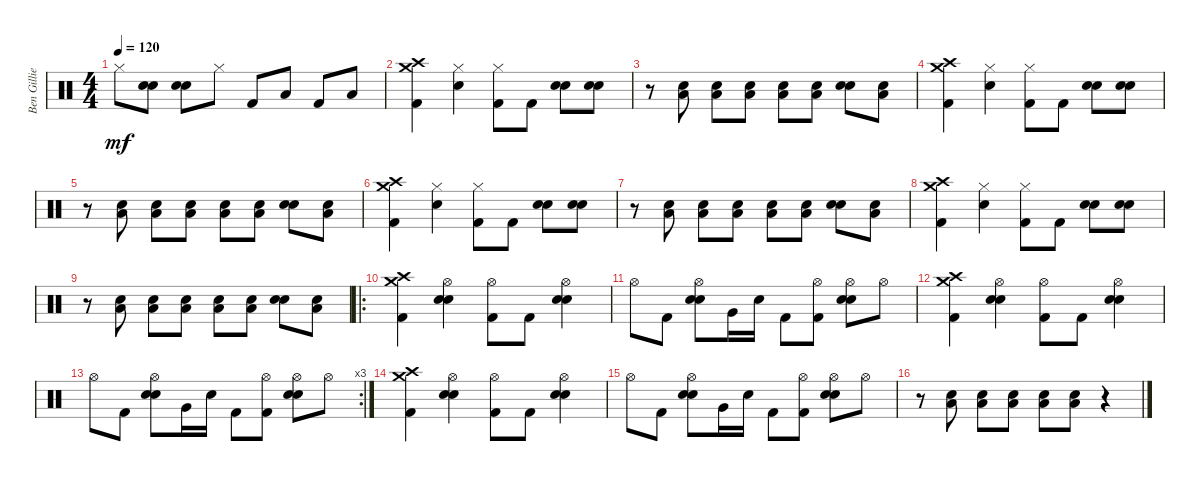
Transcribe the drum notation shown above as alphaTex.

\track ("Ben Gillies" "Ben Gillie") {instrument percussion}
\staff {score}
\articulation defaults
\ts (4 4)
\tempo 120
\clef neutral
\ks c "Hi-Hat (closed)".8{dy mf}
("Electric Snare (hit)" "Electric Snare (hit)").8 ("Electric Snare (hit)" "Electric Snare (hit)").8 "Hi-Hat (closed)".8 "Kick (hit) 2".8 "Low Tom (hit)".8 "Kick (hit) 2".8 "Low Floor Tom (hit)".8 |
("Crash high (hit)" "Crash medium (hit)" "Kick (hit) 2").4 ("Hi-Hat (closed)" "Electric Snare (hit)").4 ("Hi-Hat (closed)" "Kick (hit) 2").8 "Kick (hit) 2".8 ("Electric Snare (hit)" "Electric Snare (hit)").8 ("Electric Snare (hit)" "Electric Snare (hit)").8 |
r.8 ("Low Floor Tom (hit)" "Electric Snare (hit)").8 ("Low Floor Tom (hit)" "Electric Snare (hit)").8 ("Low Floor Tom (hit)" "Electric Snare (hit)").8 ("Low Floor Tom (hit)" "Electric Snare (hit)").8 ("Low Floor Tom (hit)" "Electric Snare (hit)").8 ("Electric Snare (hit)" "Electric Snare (hit)").8 ("Low Floor Tom (hit)" "Electric Snare (hit)").8 |
("Crash high (hit)" "Crash medium (hit)" "Kick (hit) 2").4 ("Hi-Hat (closed)" "Electric Snare (hit)").4 ("Hi-Hat (closed)" "Kick (hit) 2").8 "Kick (hit) 2".8 ("Electric Snare (hit)" "Electric Snare (hit)").8 ("Electric Snare (hit)" "Electric Snare (hit)").8 |
r.8 ("Low Floor Tom (hit)" "Electric Snare (hit)").8 ("Low Floor Tom (hit)" "Electric Snare (hit)").8 ("Low Floor Tom (hit)" "Electric Snare (hit)").8 ("Low Floor Tom (hit)" "Electric Snare (hit)").8 ("Low Floor Tom (hit)" "Electric Snare (hit)").8 ("Electric Snare (hit)" "Electric Snare (hit)").8 ("Low Floor Tom (hit)" "Electric Snare (hit)").8 |
("Crash high (hit)" "Crash medium (hit)" "Kick (hit) 2").4 ("Hi-Hat (closed)" "Electric Snare (hit)").4 ("Hi-Hat (closed)" "Kick (hit) 2").8 "Kick (hit) 2".8 ("Electric Snare (hit)" "Electric Snare (hit)").8 ("Electric Snare (hit)" "Electric Snare (hit)").8 |
r.8 ("Low Floor Tom (hit)" "Electric Snare (hit)").8 ("Low Floor Tom (hit)" "Electric Snare (hit)").8 ("Low Floor Tom (hit)" "Electric Snare (hit)").8 ("Low Floor Tom (hit)" "Electric Snare (hit)").8 ("Low Floor Tom (hit)" "Electric Snare (hit)").8 ("Electric Snare (hit)" "Electric Snare (hit)").8 ("Low Floor Tom (hit)" "Electric Snare (hit)").8 |
("Crash high (hit)" "Crash medium (hit)" "Kick (hit) 2").4 ("Hi-Hat (closed)" "Electric Snare (hit)").4 ("Hi-Hat (closed)" "Kick (hit) 2").8 "Kick (hit) 2".8 ("Electric Snare (hit)" "Electric Snare (hit)").8 ("Electric Snare (hit)" "Electric Snare (hit)").8 |
r.8 ("Low Floor Tom (hit)" "Electric Snare (hit)").8 ("Low Floor Tom (hit)" "Electric Snare (hit)").8 ("Low Floor Tom (hit)" "Electric Snare (hit)").8 ("Low Floor Tom (hit)" "Electric Snare (hit)").8 ("Low Floor Tom (hit)" "Electric Snare (hit)").8 ("Electric Snare (hit)" "Electric Snare (hit)").8 ("Low Floor Tom (hit)" "Electric Snare (hit)").8 |
\ro
("Crash high (hit)" "Crash medium (hit)" "Kick (hit) 2").4 ("Hi-Hat (open)" "Electric Snare (hit)" "Electric Snare (hit)").4 ("Hi-Hat (open)" "Kick (hit) 2").8 "Kick (hit) 2".8 ("Hi-Hat (open)" "Electric Snare (hit)" "Electric Snare (hit)").4 |
"Hi-Hat (open)".8 "Kick (hit) 2".8 ("Hi-Hat (open)" "Electric Snare (hit)" "Electric Snare (hit)").8 "Very Low Tom (hit)".16 "Electric Snare (hit)".16 "Kick (hit) 2".8 ("Hi-Hat (open)" "Kick (hit) 2").8 ("Hi-Hat (open)" "Electric Snare (hit)" "Electric Snare (hit)").8 "Hi-Hat (open)".8 |
("Crash high (hit)" "Crash medium (hit)" "Kick (hit) 2").4 ("Hi-Hat (open)" "Electric Snare (hit)" "Electric Snare (hit)").4 ("Hi-Hat (open)" "Kick (hit) 2").8 "Kick (hit) 2".8 ("Hi-Hat (open)" "Electric Snare (hit)" "Electric Snare (hit)").4 |
\rc 3 "Hi-Hat (open)".8 "Kick (hit) 2".8
("Hi-Hat (open)" "Electric Snare (hit)" "Electric Snare (hit)").8 "Very Low Tom (hit)".16 "Electric Snare (hit)".16 "Kick (hit) 2".8 ("Hi-Hat (open)" "Kick (hit) 2").8 ("Hi-Hat (open)" "Electric Snare (hit)" "Electric Snare (hit)").8 "Hi-Hat (open)".8 |
("Crash high (hit)" "Crash medium (hit)" "Kick (hit) 2").4 ("Hi-Hat (open)" "Electric Snare (hit)" "Electric Snare (hit)").4 ("Hi-Hat (open)" "Kick (hit) 2").8 "Kick (hit) 2".8 ("Hi-Hat (open)" "Electric Snare (hit)" "Electric Snare (hit)").4 |
"Hi-Hat (open)".8 "Kick (hit) 2".8 ("Hi-Hat (open)" "Electric Snare (hit)" "Electric Snare (hit)").8 "Very Low Tom (hit)".16 "Electric Snare (hit)".16 "Kick (hit) 2".8 ("Hi-Hat (open)" "Kick (hit) 2").8 ("Hi-Hat (open)" "Electric Snare (hit)" "Electric Snare (hit)").8 "Hi-Hat (open)".8 |
r.8 ("Low Floor Tom (hit)" "Electric Snare (hit)").8 ("Low Floor Tom (hit)" "Electric Snare (hit)").8 ("Low Floor Tom (hit)" "Electric Snare (hit)").8 ("Low Floor Tom (hit)" "Electric Snare (hit)").8 ("Low Floor Tom (hit)" "Electric Snare (hit)").8 r.4
